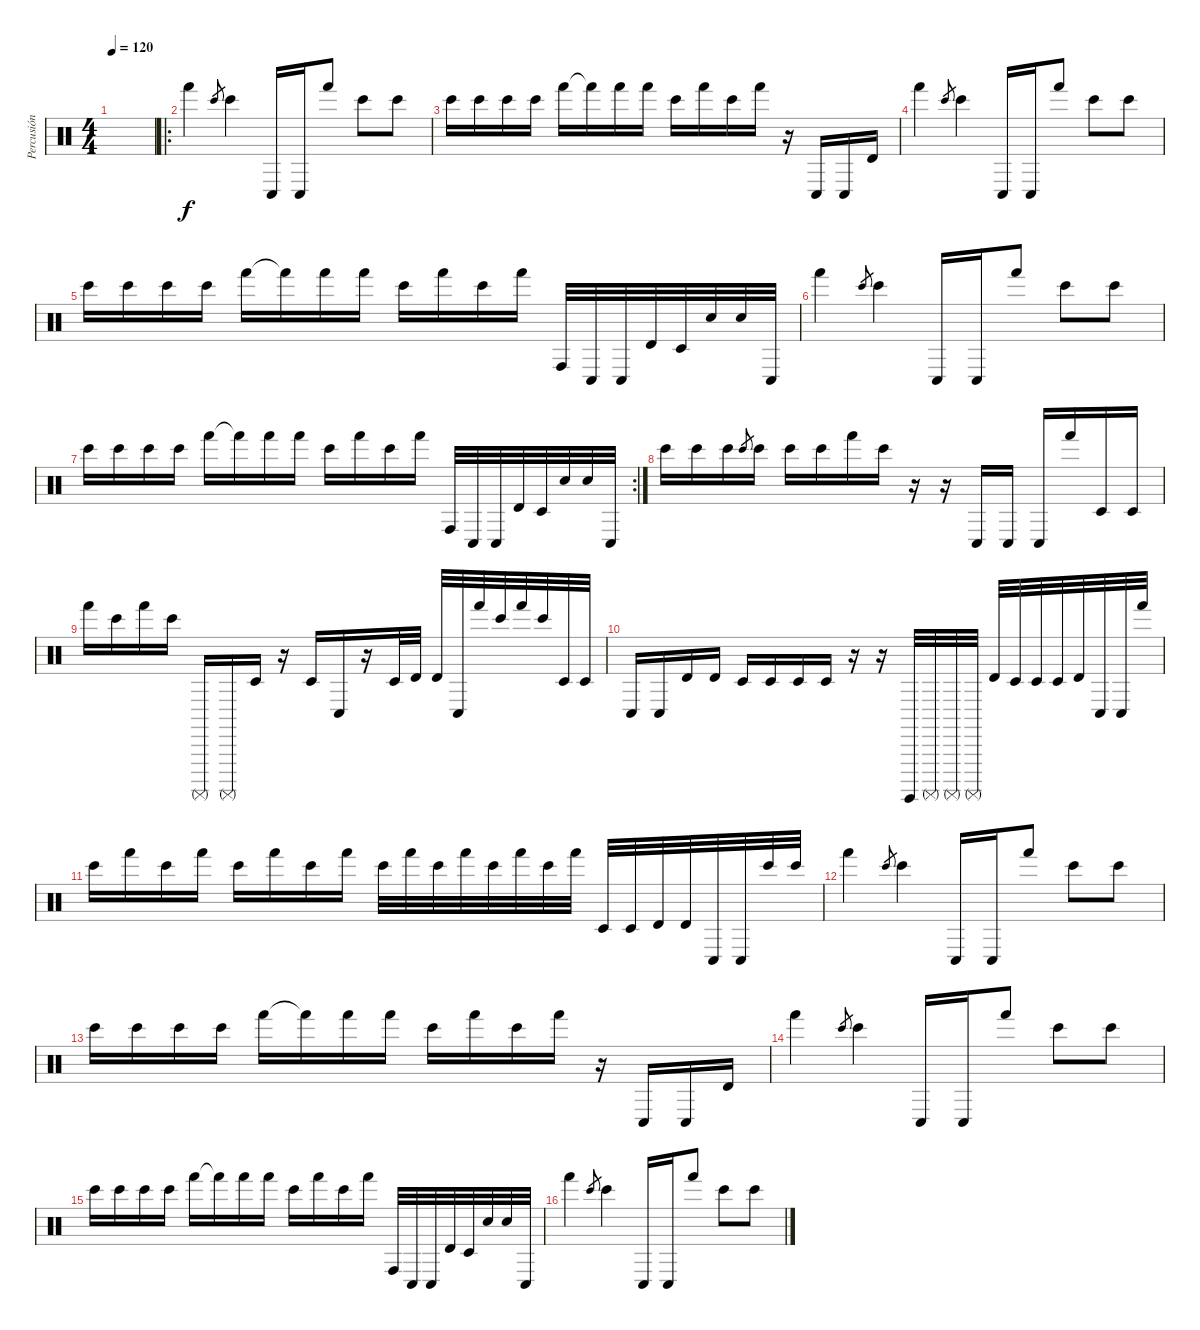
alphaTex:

\track ("Percusión" "Percusión") {instrument percussion}
\staff {score}
\articulation defaults
\ts (4 4)
\tempo 120
\clef neutral
\ks c
|
\ro "Hand (hit)".4 "Bongo High (hit)".8{gr} "Bongo High (hit)".4 "Conga low (hit)".16 "Conga low (hit)".16 "Hand (hit)".8 "Bongo High (hit)".8 "Bongo High (hit)".8
|
"Bongo High (hit)".16 "Bongo High (hit)".16 "Bongo High (hit)".16 "Bongo High (hit)".16 "Hand (hit)".16 "Hand (hit)"{t}.16 "Hand (hit)".16 "Hand (hit)".16 "Bongo High (hit)".16 "Hand (hit)".16 "Bongo High (hit)".16 "Hand (hit)".16 r.16 "Conga low (hit)".16 "Conga low (hit)".16 "Timbale high (hit)".16 |
"Hand (hit)".4 "Bongo High (hit)".8{gr} "Bongo High (hit)".4 "Conga low (hit)".16 "Conga low (hit)".16 "Hand (hit)".8 "Bongo High (hit)".8 "Bongo High (hit)".8 |
"Bongo High (hit)".16 "Bongo High (hit)".16 "Bongo High (hit)".16 "Bongo High (hit)".16 "Hand (hit)".16 "Hand (hit)"{t}.16 "Hand (hit)".16 "Hand (hit)".16 "Bongo High (hit)".16 "Hand (hit)".16 "Bongo High (hit)".16 "Hand (hit)".16 "Conga high (hit)".32 "Conga low (hit)".32 "Conga low (hit)".32 "Timbale high (hit)".32 "Timbale low (hit)".32 "Snare (hit)".32 "Snare (hit)".32 "Conga low (hit)".32 |
"Hand (hit)".4 "Bongo High (hit)".8{gr} "Bongo High (hit)".4 "Conga low (hit)".16 "Conga low (hit)".16 "Hand (hit)".8 "Bongo High (hit)".8 "Bongo High (hit)".8 |
\rc 2 "Bongo High (hit)".16 "Bongo High (hit)".16 "Bongo High (hit)".16 "Bongo High (hit)".16 "Hand (hit)".16 "Hand (hit)"{t}.16 "Hand (hit)".16 "Hand (hit)".16 "Bongo High (hit)".16 "Hand (hit)".16 "Bongo High (hit)".16 "Hand (hit)".16 "Conga high (hit)".32 "Conga low (hit)".32 "Conga low (hit)".32 "Timbale high (hit)".32 "Timbale low (hit)".32 "Snare (hit)".32 "Snare (hit)".32 "Conga low (hit)".32
|
"Bongo High (hit)".16 "Bongo High (hit)".16 "Bongo High (hit)".16 "Bongo High (hit)".8{gr} "Bongo High (hit)".16 "Bongo High (hit)".16 "Bongo High (hit)".16 "Hand (hit)".16 "Bongo High (hit)".16 r.16 r.16 "Conga low (hit)".16 "Conga low (hit)".16 "Conga low (hit)".16 "Hand (hit)".16 "Timbale low (hit)".16 "Timbale low (hit)".16 |
"Hand (hit)".16 "Bongo High (hit)".16 "Hand (hit)".16 "Bongo High (hit)".16 "Surdo (mute)".16 "Surdo (mute)".16 "Timbale low (hit)".16 r.16 "Timbale low (hit)".16 "Conga low (hit)".16 r.16 "Timbale low (hit)".32 "Timbale high (hit)".32 "Timbale high (hit)".32 "Conga low (hit)".32 "Hand (hit)".32 "Bongo High (hit)".32 "Hand (hit)".32 "Bongo High (hit)".32 "Timbale low (hit)".32 "Timbale low (hit)".32 |
"Conga low (hit)".16 "Conga low (hit)".16 "Timbale high (hit)".16 "Timbale high (hit)".16 "Timbale low (hit)".16 "Timbale low (hit)".16 "Timbale low (hit)".16 "Timbale low (hit)".16 r.16 r.16 "Surdo (hit)".32 "Surdo (mute)".32 "Surdo (mute)".32 "Surdo (mute)".32 "Timbale high (hit)".32 "Timbale low (hit)".32 "Timbale low (hit)".32 "Timbale low (hit)".32 "Timbale high (hit)".32 "Conga low (hit)".32 "Conga low (hit)".32 "Hand (hit)".32 |
"Bongo High (hit)".16 "Hand (hit)".16 "Bongo High (hit)".16 "Hand (hit)".16 "Bongo High (hit)".16 "Hand (hit)".16 "Bongo High (hit)".16 "Hand (hit)".16 "Bongo High (hit)".32 "Hand (hit)".32 "Bongo High (hit)".32 "Hand (hit)".32 "Bongo High (hit)".32 "Hand (hit)".32 "Bongo High (hit)".32 "Hand (hit)".32 "Timbale low (hit)".32 "Timbale low (hit)".32 "Timbale high (hit)".32 "Timbale high (hit)".32 "Conga low (hit)".32 "Conga low (hit)".32 "Bongo High (hit)".32 "Bongo High (hit)".32 |
"Hand (hit)".4 "Bongo High (hit)".8{gr} "Bongo High (hit)".4 "Conga low (hit)".16 "Conga low (hit)".16 "Hand (hit)".8 "Bongo High (hit)".8 "Bongo High (hit)".8 |
"Bongo High (hit)".16 "Bongo High (hit)".16 "Bongo High (hit)".16 "Bongo High (hit)".16 "Hand (hit)".16 "Hand (hit)"{t}.16 "Hand (hit)".16 "Hand (hit)".16 "Bongo High (hit)".16 "Hand (hit)".16 "Bongo High (hit)".16 "Hand (hit)".16 r.16 "Conga low (hit)".16 "Conga low (hit)".16 "Timbale high (hit)".16 |
"Hand (hit)".4 "Bongo High (hit)".8{gr} "Bongo High (hit)".4 "Conga low (hit)".16 "Conga low (hit)".16 "Hand (hit)".8 "Bongo High (hit)".8 "Bongo High (hit)".8 |
"Bongo High (hit)".16 "Bongo High (hit)".16 "Bongo High (hit)".16 "Bongo High (hit)".16 "Hand (hit)".16 "Hand (hit)"{t}.16 "Hand (hit)".16 "Hand (hit)".16 "Bongo High (hit)".16 "Hand (hit)".16 "Bongo High (hit)".16 "Hand (hit)".16 "Conga high (hit)".32 "Conga low (hit)".32 "Conga low (hit)".32 "Timbale high (hit)".32 "Timbale low (hit)".32 "Snare (hit)".32 "Snare (hit)".32 "Conga low (hit)".32 |
"Hand (hit)".4 "Bongo High (hit)".8{gr} "Bongo High (hit)".4 "Conga low (hit)".16 "Conga low (hit)".16 "Hand (hit)".8 "Bongo High (hit)".8 "Bongo High (hit)".8
